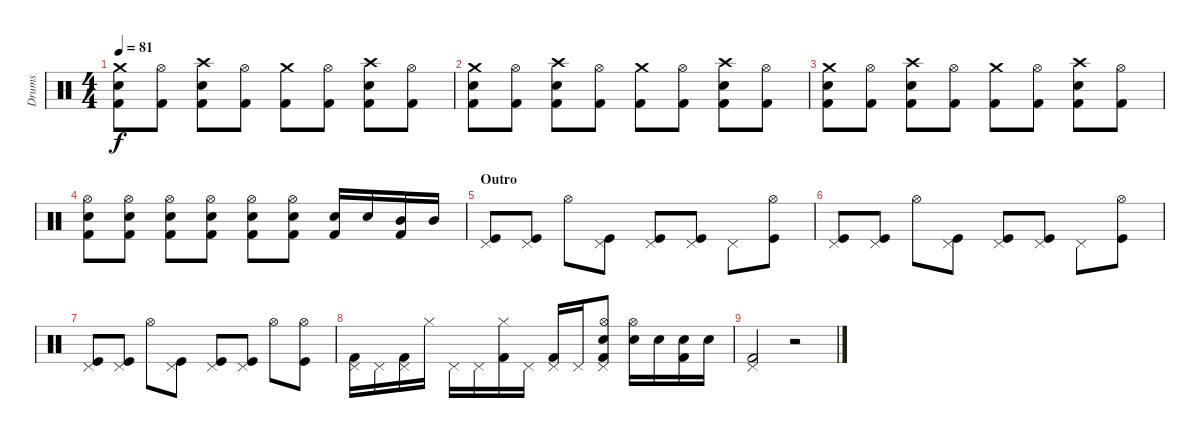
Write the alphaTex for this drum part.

\track ("Drums" "Drums") {instrument percussion}
\staff {score}
\articulation defaults
\ts (4 4)
\tempo 81
\clef neutral
\ks c
("Crash medium (hit)" "Snare (hit) 2" "Kick (hit) 2").8{dy f} ("Hi-Hat (open)" "Kick (hit) 2").8 ("Crash high (hit)" "Snare (hit) 2" "Kick (hit) 2").8 ("Hi-Hat (open)" "Kick (hit) 2").8 ("Crash medium (hit)" "Kick (hit) 2").8 ("Hi-Hat (open)" "Kick (hit) 2").8 ("Crash high (hit)" "Snare (hit) 2" "Kick (hit) 2").8 ("Hi-Hat (open)" "Kick (hit) 2").8 |
("Crash medium (hit)" "Snare (hit) 2" "Kick (hit) 2").8 ("Hi-Hat (open)" "Kick (hit) 2").8 ("Crash high (hit)" "Snare (hit) 2" "Kick (hit) 2").8 ("Hi-Hat (open)" "Kick (hit) 2").8 ("Crash medium (hit)" "Kick (hit) 2").8 ("Hi-Hat (open)" "Kick (hit) 2").8 ("Crash high (hit)" "Snare (hit) 2" "Kick (hit) 2").8 ("Hi-Hat (open)" "Kick (hit) 2").8 |
("Crash medium (hit)" "Snare (hit) 2" "Kick (hit) 2").8 ("Hi-Hat (open)" "Kick (hit) 2").8 ("Crash high (hit)" "Snare (hit) 2" "Kick (hit) 2").8 ("Hi-Hat (open)" "Kick (hit) 2").8 ("Crash medium (hit)" "Kick (hit) 2").8 ("Hi-Hat (open)" "Kick (hit) 2").8 ("Crash high (hit)" "Snare (hit) 2" "Kick (hit) 2").8 ("Hi-Hat (open)" "Kick (hit) 2").8 |
("Hi-Hat (open)" "Snare (hit) 2" "Kick (hit) 2").8 ("Hi-Hat (open)" "Snare (hit) 2" "Kick (hit) 2").8 ("Hi-Hat (open)" "Snare (hit) 2" "Kick (hit) 2").8 ("Hi-Hat (open)" "Snare (hit) 2" "Kick (hit) 2").8 ("Hi-Hat (open)" "Snare (hit) 2" "Kick (hit) 2").8 ("Hi-Hat (open)" "Snare (hit) 2" "Kick (hit) 2").8 ("Snare (hit) 2" "Kick (hit) 2").16 "Snare (hit) 2".16 ("Mid Tom (hit)" "Kick (hit) 2").16 "Mid Tom (hit)".16 |
\section ("" "Outro")
("Pedal Hi-Hat (hit)" "Kick (hit)").8 ("Pedal Hi-Hat (hit)" "Kick (hit)").8 "Hi-Hat (open)".8 ("Pedal Hi-Hat (hit)" "Kick (hit)").8 ("Pedal Hi-Hat (hit)" "Kick (hit)").8 ("Pedal Hi-Hat (hit)" "Kick (hit)").8 "Pedal Hi-Hat (hit)".8 ("Hi-Hat (open)" "Kick (hit)").8 |
("Pedal Hi-Hat (hit)" "Kick (hit)").8 ("Pedal Hi-Hat (hit)" "Kick (hit)").8 "Hi-Hat (open)".8 ("Pedal Hi-Hat (hit)" "Kick (hit)").8 ("Pedal Hi-Hat (hit)" "Kick (hit)").8 ("Pedal Hi-Hat (hit)" "Kick (hit)").8 "Pedal Hi-Hat (hit)".8 ("Hi-Hat (open)" "Kick (hit)").8 |
("Pedal Hi-Hat (hit)" "Kick (hit)").8 ("Pedal Hi-Hat (hit)" "Kick (hit)").8 "Hi-Hat (open)".8 ("Pedal Hi-Hat (hit)" "Kick (hit)").8 ("Pedal Hi-Hat (hit)" "Kick (hit)").8 ("Pedal Hi-Hat (hit)" "Kick (hit)").8 "Hi-Hat (open)".8 ("Hi-Hat (open)" "Kick (hit)").8 |
("Pedal Hi-Hat (hit)" "Kick (hit) 2").16 "Pedal Hi-Hat (hit)".16 ("Pedal Hi-Hat (hit)" "Kick (hit) 2").16 "Hi-Hat (closed)".16 "Pedal Hi-Hat (hit)".16 "Pedal Hi-Hat (hit)".16 ("Hi-Hat (closed)" "Kick (hit) 2").16 "Pedal Hi-Hat (hit)".16 ("Pedal Hi-Hat (hit)" "Kick (hit) 2").16 "Pedal Hi-Hat (hit)".16 ("Pedal Hi-Hat (hit)" "Hi-Hat (open)" "Snare (hit) 2" "Kick (hit) 2").8 ("Hi-Hat (open)" "Snare (hit) 2").16 "Snare (hit) 2".16 ("Snare (hit) 2" "Kick (hit) 2").16 "Snare (hit) 2".16 |
("Pedal Hi-Hat (hit)" "Kick (hit) 2").2 r.2
